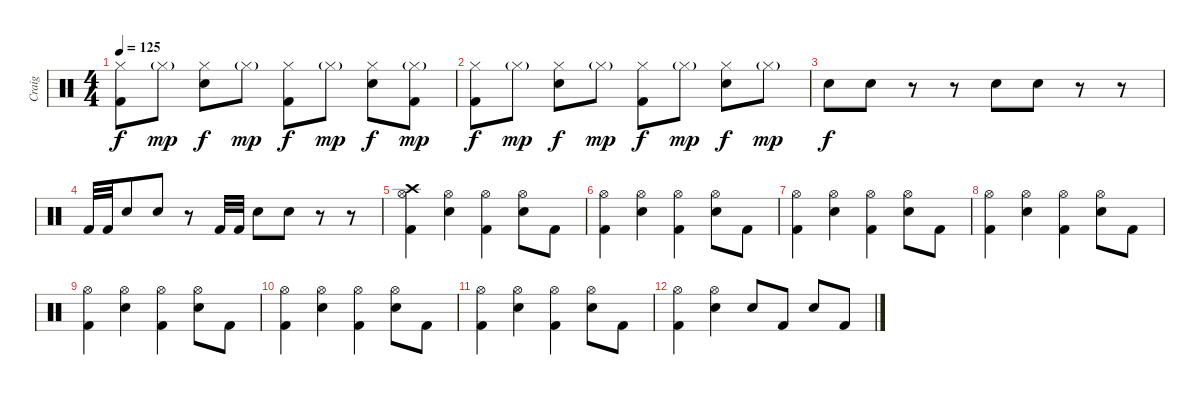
\track ("Craig" "Craig") {instrument percussion}
\staff {score}
\articulation defaults
\ts (4 4)
\tempo 125
\clef neutral
\ks c
("Hi-Hat (closed)" "Kick (hit) 2").8{dy f} "Hi-Hat (closed)"{g}.8{dy mp} ("Hi-Hat (closed)" "Snare (hit) 2").8{dy f} "Hi-Hat (closed)"{g}.8{dy mp} ("Hi-Hat (closed)" "Kick (hit) 2").8{dy f} "Hi-Hat (closed)"{g}.8{dy mp} ("Hi-Hat (closed)" "Snare (hit) 2").8{dy f} ("Hi-Hat (closed)"{g} "Kick (hit) 2").8{dy mp} |
("Hi-Hat (closed)" "Kick (hit) 2").8{dy f} "Hi-Hat (closed)"{g}.8{dy mp} ("Hi-Hat (closed)" "Snare (hit) 2").8{dy f} "Hi-Hat (closed)"{g}.8{dy mp} ("Hi-Hat (closed)" "Kick (hit) 2").8{dy f} "Hi-Hat (closed)"{g}.8{dy mp} ("Hi-Hat (closed)" "Snare (hit) 2").8{dy f} "Hi-Hat (closed)"{g}.8{dy mp} |
"Snare (hit) 2".8{dy f} "Snare (hit) 2".8 r.8 r.8 "Snare (hit) 2".8 "Snare (hit) 2".8 r.8 r.8 |
"Kick (hit) 2".32 "Kick (hit) 2".32 "Snare (hit) 2".8 "Snare (hit) 2".8 r.8 "Kick (hit) 2".32 "Kick (hit) 2".32 "Snare (hit) 2".8 "Snare (hit) 2".8 r.8 r.8 |
("Crash high (hit)" "Hi-Hat (open)" "Kick (hit) 2").4 ("Hi-Hat (open)" "Snare (hit) 2").4 ("Hi-Hat (open)" "Kick (hit) 2").4 ("Hi-Hat (open)" "Snare (hit) 2").8 "Kick (hit) 2".8 |
("Hi-Hat (open)" "Kick (hit) 2").4 ("Hi-Hat (open)" "Snare (hit) 2").4 ("Hi-Hat (open)" "Kick (hit) 2").4 ("Hi-Hat (open)" "Snare (hit) 2").8 "Kick (hit) 2".8 |
("Hi-Hat (open)" "Kick (hit) 2").4 ("Hi-Hat (open)" "Snare (hit) 2").4 ("Hi-Hat (open)" "Kick (hit) 2").4 ("Hi-Hat (open)" "Snare (hit) 2").8 "Kick (hit) 2".8 |
("Hi-Hat (open)" "Kick (hit) 2").4 ("Hi-Hat (open)" "Snare (hit) 2").4 ("Hi-Hat (open)" "Kick (hit) 2").4 ("Hi-Hat (open)" "Snare (hit) 2").8 "Kick (hit) 2".8 |
("Hi-Hat (open)" "Kick (hit) 2").4 ("Hi-Hat (open)" "Snare (hit) 2").4 ("Hi-Hat (open)" "Kick (hit) 2").4 ("Hi-Hat (open)" "Snare (hit) 2").8 "Kick (hit) 2".8 |
("Hi-Hat (open)" "Kick (hit) 2").4 ("Hi-Hat (open)" "Snare (hit) 2").4 ("Hi-Hat (open)" "Kick (hit) 2").4 ("Hi-Hat (open)" "Snare (hit) 2").8 "Kick (hit) 2".8 |
("Hi-Hat (open)" "Kick (hit) 2").4 ("Hi-Hat (open)" "Snare (hit) 2").4 ("Hi-Hat (open)" "Kick (hit) 2").4 ("Hi-Hat (open)" "Snare (hit) 2").8 "Kick (hit) 2".8 |
("Hi-Hat (open)" "Kick (hit) 2").4 ("Hi-Hat (open)" "Snare (hit) 2").4 "Snare (hit) 2".8 "Kick (hit) 2".8 "Snare (hit) 2".8 "Kick (hit) 2".8
